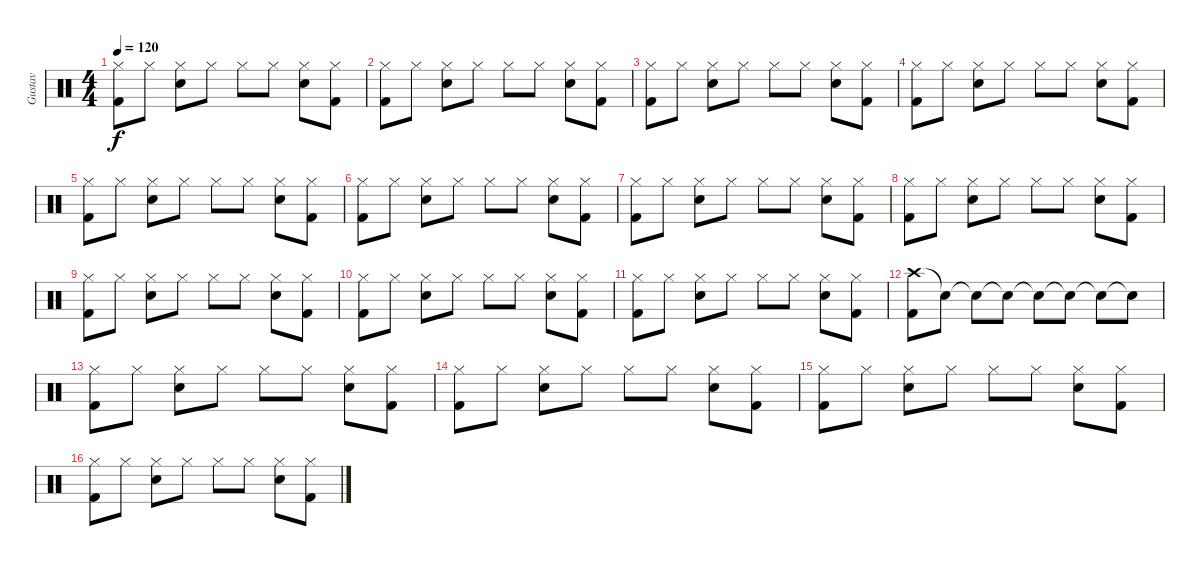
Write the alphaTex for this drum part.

\track ("Gustav" "Gustav") {instrument percussion}
\staff {score}
\articulation defaults
\ts (4 4)
\tempo 120
\clef neutral
\ks c
("Kick (hit) 2" "Hi-Hat (closed)").8{dy f} "Hi-Hat (closed)".8 ("Hi-Hat (closed)" "Snare (hit) 2").8 "Hi-Hat (closed)".8 "Hi-Hat (closed)".8 "Hi-Hat (closed)".8 ("Snare (hit) 2" "Hi-Hat (closed)").8 ("Hi-Hat (closed)" "Kick (hit) 2").8 |
("Kick (hit) 2" "Hi-Hat (closed)").8 "Hi-Hat (closed)".8 ("Hi-Hat (closed)" "Snare (hit) 2").8 "Hi-Hat (closed)".8 "Hi-Hat (closed)".8 "Hi-Hat (closed)".8 ("Snare (hit) 2" "Hi-Hat (closed)").8 ("Hi-Hat (closed)" "Kick (hit) 2").8 |
("Kick (hit) 2" "Hi-Hat (closed)").8 "Hi-Hat (closed)".8 ("Hi-Hat (closed)" "Snare (hit) 2").8 "Hi-Hat (closed)".8 "Hi-Hat (closed)".8 "Hi-Hat (closed)".8 ("Snare (hit) 2" "Hi-Hat (closed)").8 ("Hi-Hat (closed)" "Kick (hit) 2").8 |
("Kick (hit) 2" "Hi-Hat (closed)").8 "Hi-Hat (closed)".8 ("Hi-Hat (closed)" "Snare (hit) 2").8 "Hi-Hat (closed)".8 "Hi-Hat (closed)".8 "Hi-Hat (closed)".8 ("Snare (hit) 2" "Hi-Hat (closed)").8 ("Hi-Hat (closed)" "Kick (hit) 2").8 |
("Kick (hit) 2" "Hi-Hat (closed)").8 "Hi-Hat (closed)".8 ("Hi-Hat (closed)" "Snare (hit) 2").8 "Hi-Hat (closed)".8 "Hi-Hat (closed)".8 "Hi-Hat (closed)".8 ("Snare (hit) 2" "Hi-Hat (closed)").8 ("Hi-Hat (closed)" "Kick (hit) 2").8 |
("Kick (hit) 2" "Hi-Hat (closed)").8 "Hi-Hat (closed)".8 ("Hi-Hat (closed)" "Snare (hit) 2").8 "Hi-Hat (closed)".8 "Hi-Hat (closed)".8 "Hi-Hat (closed)".8 ("Snare (hit) 2" "Hi-Hat (closed)").8 ("Hi-Hat (closed)" "Kick (hit) 2").8 |
("Kick (hit) 2" "Hi-Hat (closed)").8 "Hi-Hat (closed)".8 ("Hi-Hat (closed)" "Snare (hit) 2").8 "Hi-Hat (closed)".8 "Hi-Hat (closed)".8 "Hi-Hat (closed)".8 ("Snare (hit) 2" "Hi-Hat (closed)").8 ("Hi-Hat (closed)" "Kick (hit) 2").8 |
("Kick (hit) 2" "Hi-Hat (closed)").8 "Hi-Hat (closed)".8 ("Hi-Hat (closed)" "Snare (hit) 2").8 "Hi-Hat (closed)".8 "Hi-Hat (closed)".8 "Hi-Hat (closed)".8 ("Snare (hit) 2" "Hi-Hat (closed)").8 ("Hi-Hat (closed)" "Kick (hit) 2").8 |
("Kick (hit) 2" "Hi-Hat (closed)").8 "Hi-Hat (closed)".8 ("Hi-Hat (closed)" "Snare (hit) 2").8 "Hi-Hat (closed)".8 "Hi-Hat (closed)".8 "Hi-Hat (closed)".8 ("Snare (hit) 2" "Hi-Hat (closed)").8 ("Hi-Hat (closed)" "Kick (hit) 2").8 |
("Kick (hit) 2" "Hi-Hat (closed)").8 "Hi-Hat (closed)".8 ("Hi-Hat (closed)" "Snare (hit) 2").8 "Hi-Hat (closed)".8 "Hi-Hat (closed)".8 "Hi-Hat (closed)".8 ("Snare (hit) 2" "Hi-Hat (closed)").8 ("Hi-Hat (closed)" "Kick (hit) 2").8 |
("Kick (hit) 2" "Hi-Hat (closed)").8 "Hi-Hat (closed)".8 ("Hi-Hat (closed)" "Snare (hit) 2").8 "Hi-Hat (closed)".8 "Hi-Hat (closed)".8 "Hi-Hat (closed)".8 ("Snare (hit) 2" "Hi-Hat (closed)").8 ("Hi-Hat (closed)" "Kick (hit) 2").8 |
("Crash high (hit)" "Kick (hit) 2").8 "Snare (hit)"{t}.8 "Snare (hit)"{t}.8 "Snare (hit)"{t}.8 "Snare (hit)"{t}.8 "Snare (hit)"{t}.8 "Snare (hit)"{t}.8 "Snare (hit)"{t}.8 |
("Kick (hit) 2" "Hi-Hat (closed)").8 "Hi-Hat (closed)".8 ("Hi-Hat (closed)" "Snare (hit) 2").8 "Hi-Hat (closed)".8 "Hi-Hat (closed)".8 "Hi-Hat (closed)".8 ("Snare (hit) 2" "Hi-Hat (closed)").8 ("Hi-Hat (closed)" "Kick (hit) 2").8 |
("Kick (hit) 2" "Hi-Hat (closed)").8 "Hi-Hat (closed)".8 ("Hi-Hat (closed)" "Snare (hit) 2").8 "Hi-Hat (closed)".8 "Hi-Hat (closed)".8 "Hi-Hat (closed)".8 ("Snare (hit) 2" "Hi-Hat (closed)").8 ("Hi-Hat (closed)" "Kick (hit) 2").8 |
("Kick (hit) 2" "Hi-Hat (closed)").8 "Hi-Hat (closed)".8 ("Hi-Hat (closed)" "Snare (hit) 2").8 "Hi-Hat (closed)".8 "Hi-Hat (closed)".8 "Hi-Hat (closed)".8 ("Snare (hit) 2" "Hi-Hat (closed)").8 ("Hi-Hat (closed)" "Kick (hit) 2").8 |
("Kick (hit) 2" "Hi-Hat (closed)").8 "Hi-Hat (closed)".8 ("Hi-Hat (closed)" "Snare (hit) 2").8 "Hi-Hat (closed)".8 "Hi-Hat (closed)".8 "Hi-Hat (closed)".8 ("Snare (hit) 2" "Hi-Hat (closed)").8 ("Hi-Hat (closed)" "Kick (hit) 2").8
